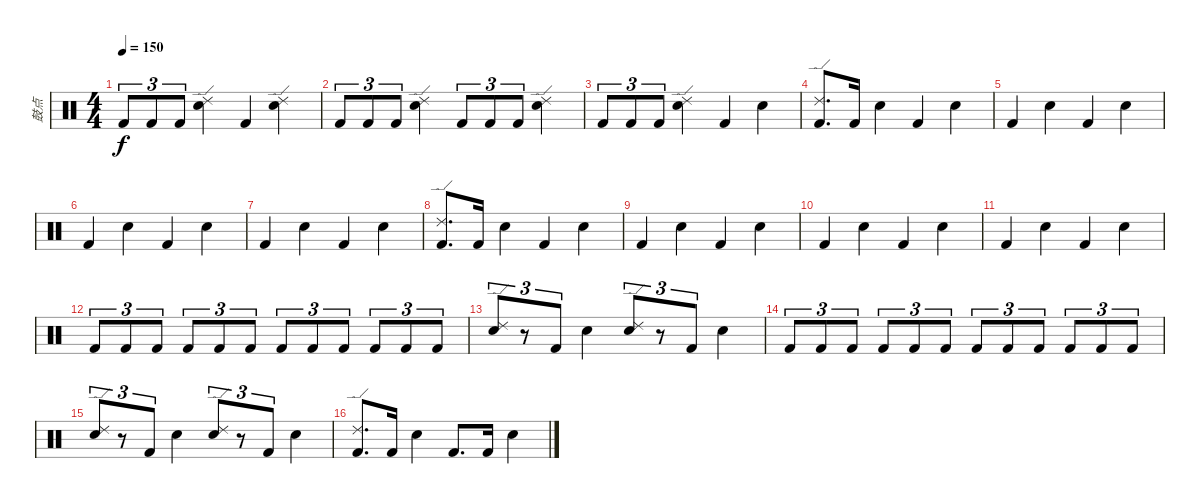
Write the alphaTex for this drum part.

\track ("鼓点" "鼓点") {instrument percussion}
\staff {score}
\articulation defaults
\ts (4 4)
\tempo 150
\clef neutral
\ks c "Kick (hit) 2".8{tu (3 2) dy f} "Kick (hit) 2".8{tu (3 2)} "Kick (hit) 2".8{tu (3 2)}
("Ride (edge) 2" "Snare (hit) 2").4 "Kick (hit) 2".4 ("Ride (edge) 2" "Snare (hit) 2").4 |
"Kick (hit) 2".8{tu (3 2)} "Kick (hit) 2".8{tu (3 2)} "Kick (hit) 2".8{tu (3 2)} ("Ride (edge) 2" "Snare (hit) 2").4 "Kick (hit) 2".8{tu (3 2)} "Kick (hit) 2".8{tu (3 2)} "Kick (hit) 2".8{tu (3 2)} ("Ride (edge) 2" "Snare (hit) 2").4 |
"Kick (hit) 2".8{tu (3 2)} "Kick (hit) 2".8{tu (3 2)} "Kick (hit) 2".8{tu (3 2)} ("Ride (edge) 2" "Snare (hit) 2").4 "Kick (hit) 2".4 "Snare (hit) 2".4 |
("Kick (hit) 2" "Ride (edge) 2").8{d} "Kick (hit) 2".16 "Snare (hit) 2".4 "Kick (hit) 2".4 "Snare (hit) 2".4 |
"Kick (hit) 2".4 "Snare (hit) 2".4 "Kick (hit) 2".4 "Snare (hit) 2".4 |
"Kick (hit) 2".4 "Snare (hit) 2".4 "Kick (hit) 2".4 "Snare (hit) 2".4 |
"Kick (hit) 2".4 "Snare (hit) 2".4 "Kick (hit) 2".4 "Snare (hit) 2".4 |
("Kick (hit) 2" "Ride (edge) 2").8{d} "Kick (hit) 2".16 "Snare (hit) 2".4 "Kick (hit) 2".4 "Snare (hit) 2".4 |
"Kick (hit) 2".4 "Snare (hit) 2".4 "Kick (hit) 2".4 "Snare (hit) 2".4 |
"Kick (hit) 2".4 "Snare (hit) 2".4 "Kick (hit) 2".4 "Snare (hit) 2".4 |
"Kick (hit) 2".4 "Snare (hit) 2".4 "Kick (hit) 2".4 "Snare (hit) 2".4 |
"Kick (hit) 2".8{tu (3 2)} "Kick (hit) 2".8{tu (3 2)} "Kick (hit) 2".8{tu (3 2)} "Kick (hit) 2".8{tu (3 2)} "Kick (hit) 2".8{tu (3 2)} "Kick (hit) 2".8{tu (3 2)} "Kick (hit) 2".8{tu (3 2)} "Kick (hit) 2".8{tu (3 2)} "Kick (hit) 2".8{tu (3 2)} "Kick (hit) 2".8{tu (3 2)} "Kick (hit) 2".8{tu (3 2)} "Kick (hit) 2".8{tu (3 2)} |
("Ride (edge) 2" "Snare (hit) 2").8{tu (3 2)} r.8{tu (3 2)} "Kick (hit) 2".8{tu (3 2)} "Snare (hit) 2".4 ("Ride (edge) 2" "Snare (hit) 2").8{tu (3 2)} r.8{tu (3 2)} "Kick (hit) 2".8{tu (3 2)} "Snare (hit) 2".4 |
"Kick (hit) 2".8{tu (3 2)} "Kick (hit) 2".8{tu (3 2)} "Kick (hit) 2".8{tu (3 2)} "Kick (hit) 2".8{tu (3 2)} "Kick (hit) 2".8{tu (3 2)} "Kick (hit) 2".8{tu (3 2)} "Kick (hit) 2".8{tu (3 2)} "Kick (hit) 2".8{tu (3 2)} "Kick (hit) 2".8{tu (3 2)} "Kick (hit) 2".8{tu (3 2)} "Kick (hit) 2".8{tu (3 2)} "Kick (hit) 2".8{tu (3 2)} |
("Ride (edge) 2" "Snare (hit) 2").8{tu (3 2)} r.8{tu (3 2)} "Kick (hit) 2".8{tu (3 2)} "Snare (hit) 2".4 ("Ride (edge) 2" "Snare (hit) 2").8{tu (3 2)} r.8{tu (3 2)} "Kick (hit) 2".8{tu (3 2)} "Snare (hit) 2".4 |
("Kick (hit) 2" "Ride (edge) 2").8{d} "Kick (hit) 2".16 "Snare (hit) 2".4 "Kick (hit) 2".8{d} "Kick (hit) 2".16 "Snare (hit) 2".4
